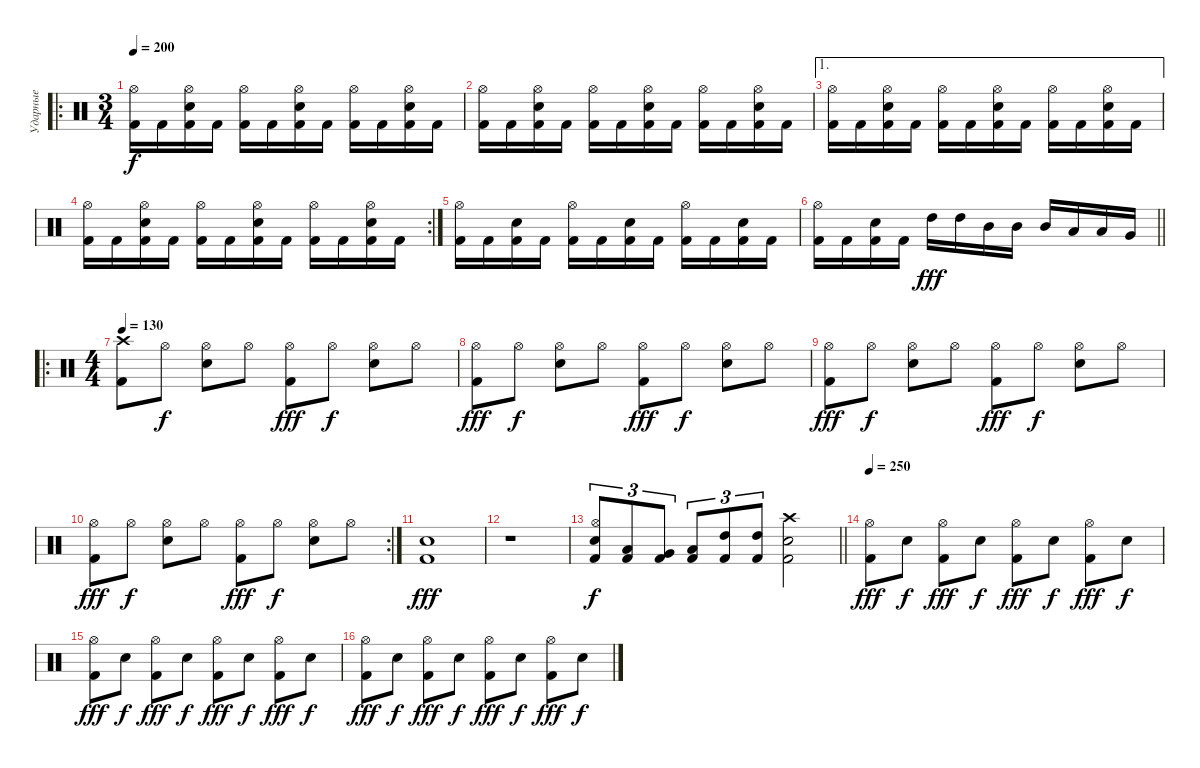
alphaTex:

\track ("Ударные" "Ударные") {instrument percussion}
\staff {score}
\articulation defaults
\ro
\ts (3 4)
\tempo 200
\clef neutral
\ks c
("Kick (hit) 2" "Hi-Hat (open)").16{dy f} "Kick (hit) 2".16 ("Kick (hit) 2" "Snare (hit) 2" "Hi-Hat (open)").16 "Kick (hit) 2".16 ("Kick (hit) 2" "Hi-Hat (open)").16 "Kick (hit) 2".16 ("Kick (hit) 2" "Snare (hit) 2" "Hi-Hat (open)").16 "Kick (hit) 2".16 ("Kick (hit) 2" "Hi-Hat (open)").16 "Kick (hit) 2".16 ("Kick (hit) 2" "Snare (hit) 2" "Hi-Hat (open)").16 "Kick (hit) 2".16 |
("Kick (hit) 2" "Hi-Hat (open)").16 "Kick (hit) 2".16 ("Kick (hit) 2" "Snare (hit) 2" "Hi-Hat (open)").16 "Kick (hit) 2".16 ("Kick (hit) 2" "Hi-Hat (open)").16 "Kick (hit) 2".16 ("Kick (hit) 2" "Snare (hit) 2" "Hi-Hat (open)").16 "Kick (hit) 2".16 ("Kick (hit) 2" "Hi-Hat (open)").16 "Kick (hit) 2".16 ("Kick (hit) 2" "Snare (hit) 2" "Hi-Hat (open)").16 "Kick (hit) 2".16 |
\ae 1
("Kick (hit) 2" "Hi-Hat (open)").16 "Kick (hit) 2".16 ("Kick (hit) 2" "Snare (hit) 2" "Hi-Hat (open)").16 "Kick (hit) 2".16 ("Kick (hit) 2" "Hi-Hat (open)").16 "Kick (hit) 2".16 ("Kick (hit) 2" "Snare (hit) 2" "Hi-Hat (open)").16 "Kick (hit) 2".16 ("Kick (hit) 2" "Hi-Hat (open)").16 "Kick (hit) 2".16 ("Kick (hit) 2" "Snare (hit) 2" "Hi-Hat (open)").16 "Kick (hit) 2".16 |
\rc 2
("Kick (hit) 2" "Hi-Hat (open)").16 "Kick (hit) 2".16 ("Kick (hit) 2" "Snare (hit) 2" "Hi-Hat (open)").16 "Kick (hit) 2".16 ("Kick (hit) 2" "Hi-Hat (open)").16 "Kick (hit) 2".16 ("Kick (hit) 2" "Snare (hit) 2" "Hi-Hat (open)").16 "Kick (hit) 2".16 ("Kick (hit) 2" "Hi-Hat (open)").16 "Kick (hit) 2".16 ("Kick (hit) 2" "Snare (hit) 2" "Hi-Hat (open)").16 "Kick (hit) 2".16 |
("Kick (hit) 2" "Hi-Hat (open)").16 "Kick (hit) 2".16 ("Kick (hit) 2" "Snare (hit) 2").16 "Kick (hit) 2".16 ("Kick (hit) 2" "Hi-Hat (open)").16 "Kick (hit) 2".16 ("Kick (hit) 2" "Snare (hit) 2").16 "Kick (hit) 2".16 ("Kick (hit) 2" "Hi-Hat (open)").16 "Kick (hit) 2".16 ("Kick (hit) 2" "Snare (hit) 2").16 "Kick (hit) 2".16 |
\barLineRight lightlight
("Kick (hit) 2" "Hi-Hat (open)").16 "Kick (hit) 2".16 ("Kick (hit) 2" "Snare (hit) 2").16 "Kick (hit) 2".16 "High Tom (hit)".16{dy fff} "High Tom (hit)".16 "Mid Tom (hit)".16 "Mid Tom (hit)".16 "Mid Tom (hit)".16 "Low Tom (hit)".16 "Low Tom (hit)".16 "Very Low Tom (hit)".16 |
\ro
\ts (4 4)
\tempo 130
("Kick (hit) 2" "Crash high (hit)").8 "Hi-Hat (open)".8{dy f} ("Snare (hit) 2" "Hi-Hat (open)").8 "Hi-Hat (open)".8 ("Kick (hit) 2" "Hi-Hat (open)").8{dy fff} "Hi-Hat (open)".8{dy f} ("Snare (hit) 2" "Hi-Hat (open)").8 "Hi-Hat (open)".8 |
("Kick (hit) 2" "Hi-Hat (open)").8{dy fff} "Hi-Hat (open)".8{dy f} ("Snare (hit) 2" "Hi-Hat (open)").8 "Hi-Hat (open)".8 ("Kick (hit) 2" "Hi-Hat (open)").8{dy fff} "Hi-Hat (open)".8{dy f} ("Snare (hit) 2" "Hi-Hat (open)").8 "Hi-Hat (open)".8 |
("Kick (hit) 2" "Hi-Hat (open)").8{dy fff} "Hi-Hat (open)".8{dy f} ("Snare (hit) 2" "Hi-Hat (open)").8 "Hi-Hat (open)".8 ("Kick (hit) 2" "Hi-Hat (open)").8{dy fff} "Hi-Hat (open)".8{dy f} ("Snare (hit) 2" "Hi-Hat (open)").8 "Hi-Hat (open)".8 |
\rc 2
("Kick (hit) 2" "Hi-Hat (open)").8{dy fff} "Hi-Hat (open)".8{dy f} ("Snare (hit) 2" "Hi-Hat (open)").8 "Hi-Hat (open)".8 ("Kick (hit) 2" "Hi-Hat (open)").8{dy fff} "Hi-Hat (open)".8{dy f} ("Snare (hit) 2" "Hi-Hat (open)").8 "Hi-Hat (open)".8 |
("Kick (hit) 2" "Snare (hit) 2").1{dy fff} |
r.1 |
\barLineRight lightlight
("Kick (hit) 2" "Snare (hit) 2" "Hi-Hat (open)").8{tu (3 2) dy f} ("Kick (hit) 2" "Low Tom (hit)").8{tu (3 2)} ("Kick (hit) 2" "Very Low Tom (hit)").8{tu (3 2)} ("Kick (hit) 2" "Low Floor Tom (hit)").8{tu (3 2)} ("Kick (hit) 2" "High Tom (hit)").8{tu (3 2)} ("Kick (hit) 2" "High Tom (hit)").8{tu (3 2)} ("Kick (hit) 2" "Snare (hit) 2" "Crash high (hit)").2 |
\tempo 250
("Kick (hit) 2" "Hi-Hat (open)").8{dy fff} "Snare (hit) 2".8{dy f} ("Kick (hit) 2" "Hi-Hat (open)").8{dy fff} "Snare (hit) 2".8{dy f} ("Kick (hit) 2" "Hi-Hat (open)").8{dy fff} "Snare (hit) 2".8{dy f} ("Kick (hit) 2" "Hi-Hat (open)").8{dy fff} "Snare (hit) 2".8{dy f} |
("Kick (hit) 2" "Hi-Hat (open)").8{dy fff} "Snare (hit) 2".8{dy f} ("Kick (hit) 2" "Hi-Hat (open)").8{dy fff} "Snare (hit) 2".8{dy f} ("Kick (hit) 2" "Hi-Hat (open)").8{dy fff} "Snare (hit) 2".8{dy f} ("Kick (hit) 2" "Hi-Hat (open)").8{dy fff} "Snare (hit) 2".8{dy f} |
("Kick (hit) 2" "Hi-Hat (open)").8{dy fff} "Snare (hit) 2".8{dy f} ("Kick (hit) 2" "Hi-Hat (open)").8{dy fff} "Snare (hit) 2".8{dy f} ("Kick (hit) 2" "Hi-Hat (open)").8{dy fff} "Snare (hit) 2".8{dy f} ("Kick (hit) 2" "Hi-Hat (open)").8{dy fff} "Snare (hit) 2".8{dy f}
